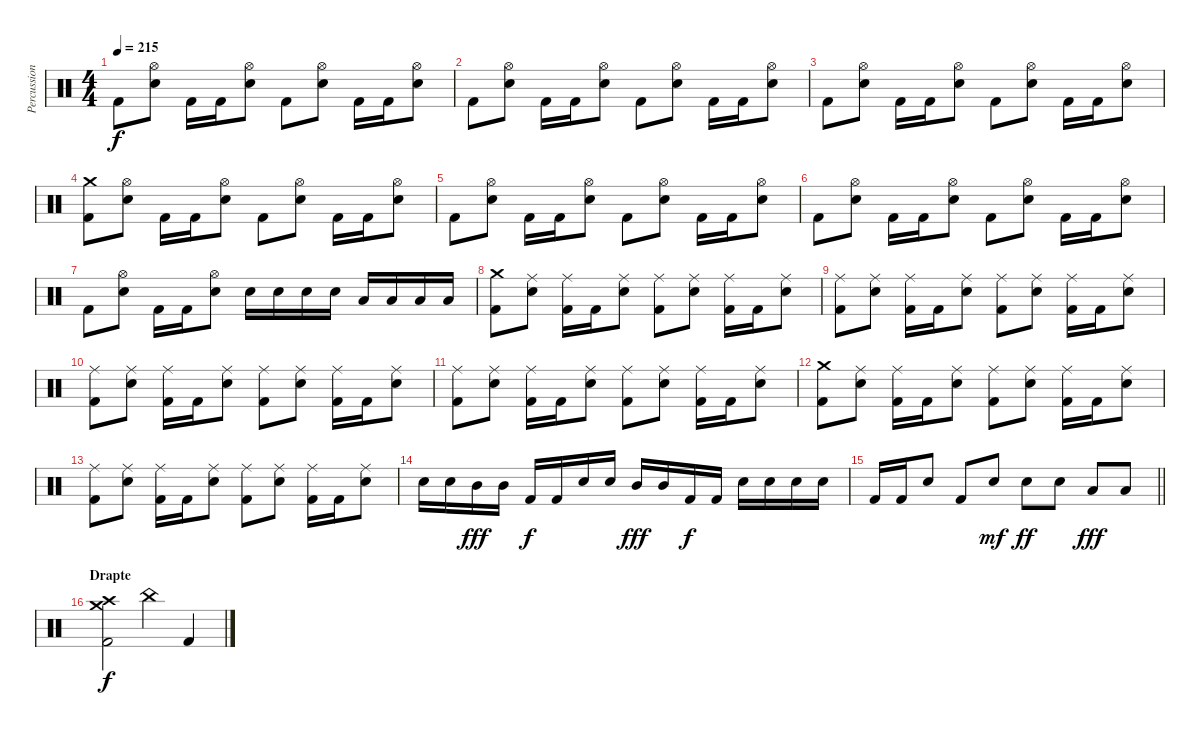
\track ("Percussion" "Percussion") {instrument percussion}
\staff {score}
\articulation defaults
\ts (4 4)
\tempo 215
\clef neutral
\ks c "Kick (hit) 2".8{dy f}
("Hi-Hat (open)" "Electric Snare (hit)").8 "Kick (hit) 2".16 "Kick (hit) 2".16 ("Hi-Hat (open)" "Electric Snare (hit)").8 "Kick (hit) 2".8 ("Hi-Hat (open)" "Electric Snare (hit)").8 "Kick (hit) 2".16 "Kick (hit) 2".16 ("Hi-Hat (open)" "Electric Snare (hit)").8 |
"Kick (hit) 2".8 ("Hi-Hat (open)" "Electric Snare (hit)").8 "Kick (hit) 2".16 "Kick (hit) 2".16 ("Hi-Hat (open)" "Electric Snare (hit)").8 "Kick (hit) 2".8 ("Hi-Hat (open)" "Electric Snare (hit)").8 "Kick (hit) 2".16 "Kick (hit) 2".16 ("Hi-Hat (open)" "Electric Snare (hit)").8 |
"Kick (hit) 2".8 ("Hi-Hat (open)" "Electric Snare (hit)").8 "Kick (hit) 2".16 "Kick (hit) 2".16 ("Hi-Hat (open)" "Electric Snare (hit)").8 "Kick (hit) 2".8 ("Hi-Hat (open)" "Electric Snare (hit)").8 "Kick (hit) 2".16 "Kick (hit) 2".16 ("Hi-Hat (open)" "Electric Snare (hit)").8 |
("Crash medium (hit)" "Kick (hit) 2").8 ("Hi-Hat (open)" "Electric Snare (hit)").8 "Kick (hit) 2".16 "Kick (hit) 2".16 ("Hi-Hat (open)" "Electric Snare (hit)").8 "Kick (hit) 2".8 ("Hi-Hat (open)" "Electric Snare (hit)").8 "Kick (hit) 2".16 "Kick (hit) 2".16 ("Hi-Hat (open)" "Electric Snare (hit)").8 |
"Kick (hit) 2".8 ("Hi-Hat (open)" "Electric Snare (hit)").8 "Kick (hit) 2".16 "Kick (hit) 2".16 ("Hi-Hat (open)" "Electric Snare (hit)").8 "Kick (hit) 2".8 ("Hi-Hat (open)" "Electric Snare (hit)").8 "Kick (hit) 2".16 "Kick (hit) 2".16 ("Hi-Hat (open)" "Electric Snare (hit)").8 |
"Kick (hit) 2".8 ("Hi-Hat (open)" "Electric Snare (hit)").8 "Kick (hit) 2".16 "Kick (hit) 2".16 ("Hi-Hat (open)" "Electric Snare (hit)").8 "Kick (hit) 2".8 ("Hi-Hat (open)" "Electric Snare (hit)").8 "Kick (hit) 2".16 "Kick (hit) 2".16 ("Hi-Hat (open)" "Electric Snare (hit)").8 |
"Kick (hit) 2".8 ("Hi-Hat (open)" "Electric Snare (hit)").8 "Kick (hit) 2".16 "Kick (hit) 2".16 ("Hi-Hat (open)" "Electric Snare (hit)").8 "Electric Snare (hit)".16 "Electric Snare (hit)".16 "Electric Snare (hit)".16 "Electric Snare (hit)".16 "Low Tom (hit)".16 "Low Tom (hit)".16 "Low Tom (hit)".16 "Low Tom (hit)".16 |
("Crash medium (hit)" "Kick (hit) 2").8 ("Ride (middle)" "Electric Snare (hit)").8 ("Ride (middle)" "Kick (hit) 2").16 "Kick (hit) 2".16 ("Ride (middle)" "Electric Snare (hit)").8 ("Ride (middle)" "Kick (hit) 2").8 ("Ride (middle)" "Electric Snare (hit)").8 ("Ride (middle)" "Kick (hit) 2").16 "Kick (hit) 2".16 ("Ride (middle)" "Electric Snare (hit)").8 |
("Ride (middle)" "Kick (hit) 2").8 ("Ride (middle)" "Electric Snare (hit)").8 ("Ride (middle)" "Kick (hit) 2").16 "Kick (hit) 2".16 ("Ride (middle)" "Electric Snare (hit)").8 ("Ride (middle)" "Kick (hit) 2").8 ("Ride (middle)" "Electric Snare (hit)").8 ("Ride (middle)" "Kick (hit) 2").16 "Kick (hit) 2".16 ("Ride (middle)" "Electric Snare (hit)").8 |
("Ride (middle)" "Kick (hit) 2").8 ("Ride (middle)" "Electric Snare (hit)").8 ("Ride (middle)" "Kick (hit) 2").16 "Kick (hit) 2".16 ("Ride (middle)" "Electric Snare (hit)").8 ("Ride (middle)" "Kick (hit) 2").8 ("Ride (middle)" "Electric Snare (hit)").8 ("Ride (middle)" "Kick (hit) 2").16 "Kick (hit) 2".16 ("Ride (middle)" "Electric Snare (hit)").8 |
("Ride (middle)" "Kick (hit) 2").8 ("Ride (middle)" "Electric Snare (hit)").8 ("Ride (middle)" "Kick (hit) 2").16 "Kick (hit) 2".16 ("Ride (middle)" "Electric Snare (hit)").8 ("Ride (middle)" "Kick (hit) 2").8 ("Ride (middle)" "Electric Snare (hit)").8 ("Ride (middle)" "Kick (hit) 2").16 "Kick (hit) 2".16 ("Ride (middle)" "Electric Snare (hit)").8 |
("Crash medium (hit)" "Kick (hit) 2").8 ("Ride (middle)" "Electric Snare (hit)").8 ("Ride (middle)" "Kick (hit) 2").16 "Kick (hit) 2".16 ("Ride (middle)" "Electric Snare (hit)").8 ("Ride (middle)" "Kick (hit) 2").8 ("Ride (middle)" "Electric Snare (hit)").8 ("Ride (middle)" "Kick (hit) 2").16 "Kick (hit) 2".16 ("Ride (middle)" "Electric Snare (hit)").8 |
("Ride (middle)" "Kick (hit) 2").8 ("Ride (middle)" "Electric Snare (hit)").8 ("Ride (middle)" "Kick (hit) 2").16 "Kick (hit) 2".16 ("Ride (middle)" "Electric Snare (hit)").8 ("Ride (middle)" "Kick (hit) 2").8 ("Ride (middle)" "Electric Snare (hit)").8 ("Ride (middle)" "Kick (hit) 2").16 "Kick (hit) 2".16 ("Ride (middle)" "Electric Snare (hit)").8 |
"Electric Snare (hit)".16 "Electric Snare (hit)".16 "Mid Tom (hit)".16{dy fff} "Mid Tom (hit)".16 "Kick (hit) 2".16{dy f} "Kick (hit) 2".16 "Electric Snare (hit)".16 "Electric Snare (hit)".16 "Mid Tom (hit)".16{dy fff} "Mid Tom (hit)".16 "Kick (hit) 2".16{dy f} "Kick (hit) 2".16 "Electric Snare (hit)".16 "Electric Snare (hit)".16 "Electric Snare (hit)".16 "Electric Snare (hit)".16 |
\barLineRight lightlight "Kick (hit) 2".16 "Kick (hit) 2".16 "Electric Snare (hit)".8 "Kick (hit) 2".8 "Electric Snare (hit)".8{dy mf} "Electric Snare (hit)".8{dy ff} "Electric Snare (hit)".8 "Low Tom (hit)".8{dy fff} "Low Tom (hit)".8
|
\section ("" "Drapte")
("Crash medium (hit)" "Crash high (hit)" "Kick (hit) 2").2{dy f} "China (hit)".4 "Kick (hit) 2".4
